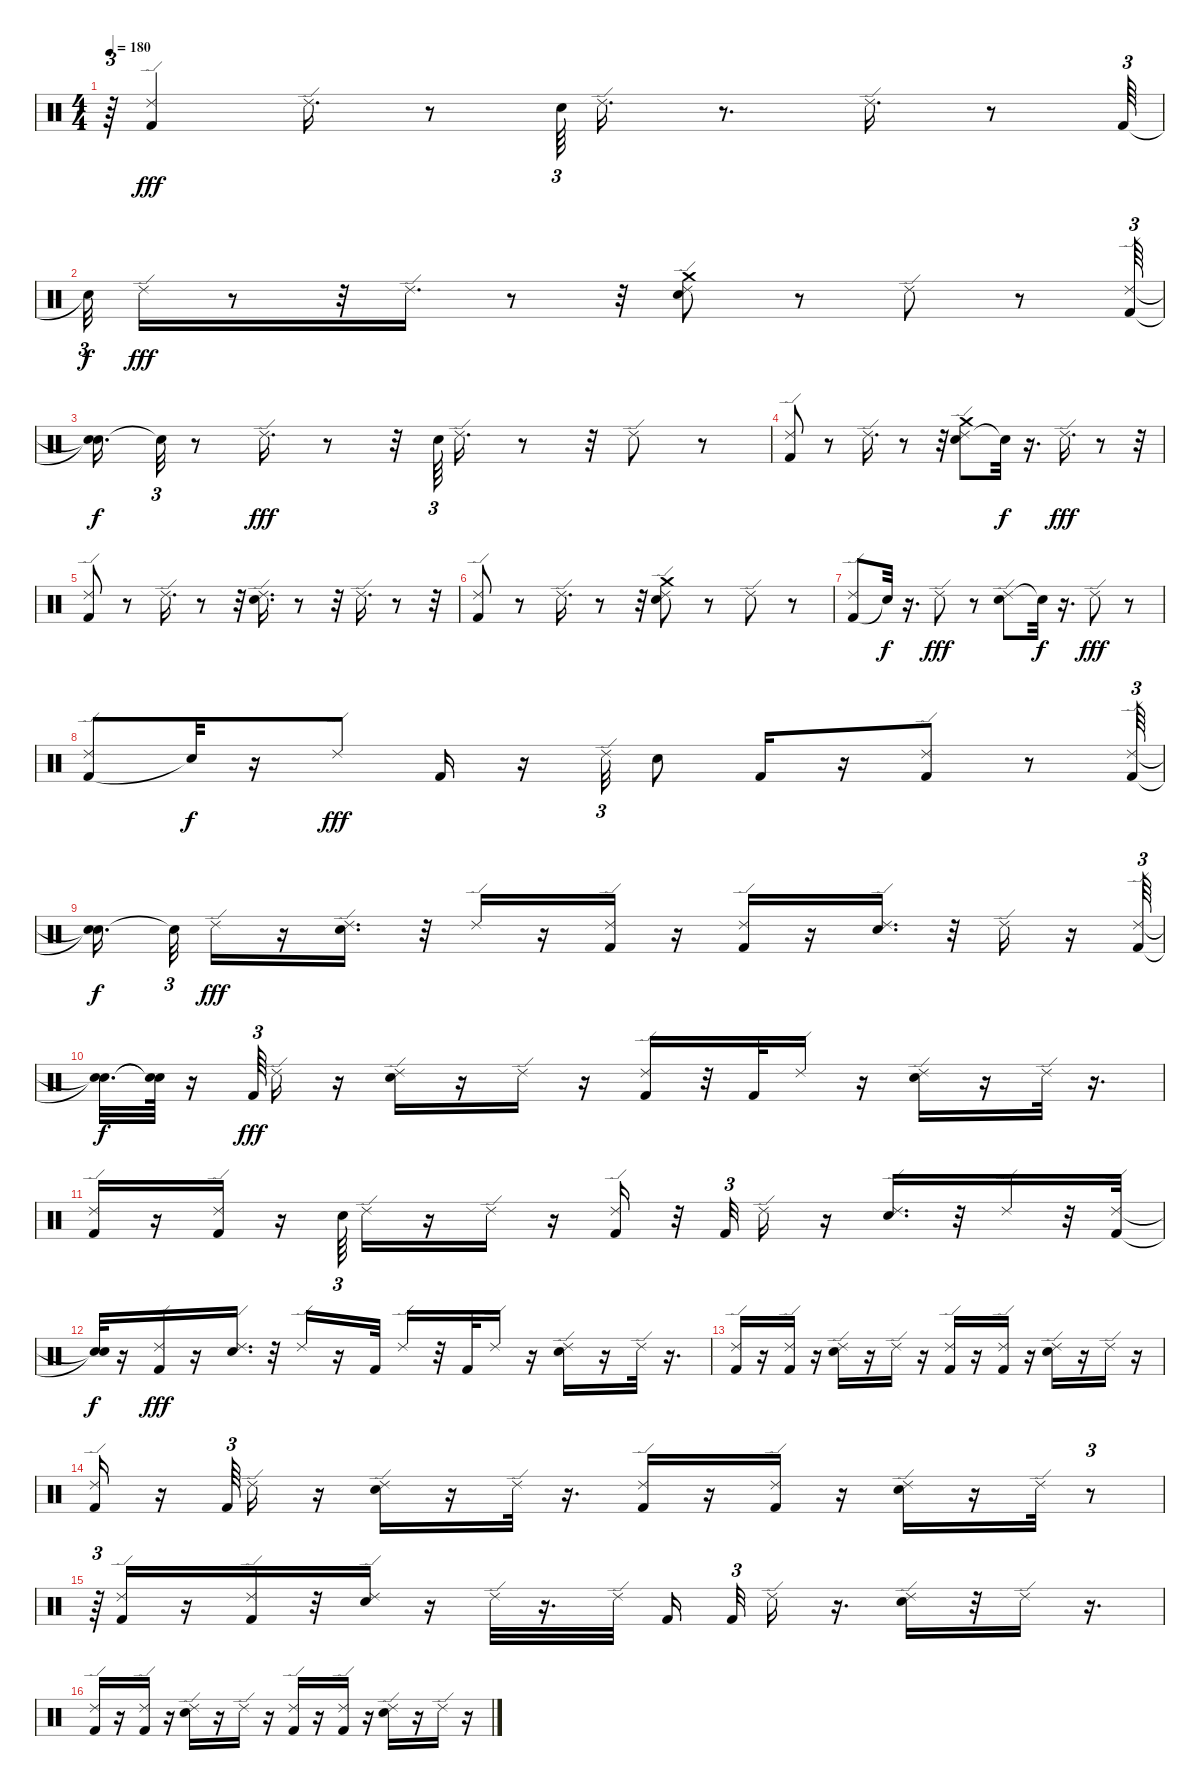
\track "" {instrument percussion}
\staff {score}
\articulation defaults
\ts (4 4)
\tempo 180
\clef neutral
\ks c
r.64{tu (3 2) dy fff} ("Kick (hit) 2" "Ride (edge) 2").4 "Ride (edge) 2".16{d} r.8 "Snare (hit) 2".64{tu (3 2)} "Ride (edge) 2".16{d} r.8{d} "Ride (edge) 2".16{d} r.8 "Kick (hit) 2".64{tu (3 2)} |
"Snare (hit)"{t}.32{tu (3 2) dy f} "Ride (edge) 2".16{dy fff} r.8 r.32 "Ride (edge) 2".16{d} r.8 r.32 ("Ride (edge) 2" "Crash medium (hit)" "Snare (hit) 2").8 r.8 "Ride (edge) 2".8 r.8 ("Kick (hit) 2" "Ride (edge) 2").64{tu (3 2)} |
("Snare (hit)"{t} "Snare (hit)"{t}).16{d dy f} "Snare (hit)"{t}.32{tu (3 2)} r.8 "Ride (edge) 2".16{d dy fff} r.8 r.32 "Snare (hit) 2".64{tu (3 2)} "Ride (edge) 2".16{d} r.8 r.32 "Ride (edge) 2".8 r.8 |
("Kick (hit) 2" "Ride (edge) 2").8 r.8 "Ride (edge) 2".16{d} r.8 r.32 ("Ride (edge) 2" "Crash medium (hit)" "Snare (hit) 2").8 "Snare (hit)"{t}.32{dy f} r.16{d} "Ride (edge) 2".16{d dy fff} r.8 r.32 |
("Kick (hit) 2" "Ride (edge) 2").8 r.8 "Ride (edge) 2".16{d} r.8 r.32 ("Ride (edge) 2" "Snare (hit) 2").16{d} r.8 r.32 "Ride (edge) 2".16{d} r.8 r.32 |
("Kick (hit) 2" "Ride (edge) 2").8 r.8 "Ride (edge) 2".16{d} r.8 r.32 ("Ride (edge) 2" "Crash medium (hit)" "Snare (hit) 2").8 r.8 "Ride (edge) 2".8 r.8 |
("Kick (hit) 2" "Ride (edge) 2").8 "Snare (hit)"{t}.32{dy f} r.16{d} "Ride (edge) 2".8{dy fff} r.8 ("Ride (edge) 2" "Snare (hit) 2").8 "Snare (hit)"{t}.32{dy f} r.16{d} "Ride (edge) 2".8{dy fff} r.8 |
("Kick (hit) 2" "Ride (edge) 2").8 "Snare (hit)"{t}.32{dy f} r.16 "Ride (edge) 2".8{dy fff} "Kick (hit) 2".16 r.16 "Ride (edge) 2".32{tu (3 2)} "Snare (hit) 2".8 "Kick (hit) 2".16 r.16 ("Kick (hit) 2" "Ride (edge) 2").8 r.8 ("Kick (hit) 2" "Ride (edge) 2").64{tu (3 2)} |
("Snare (hit)"{t} "Snare (hit)"{t}).16{d dy f beam splitsecondary} "Snare (hit)"{t}.32{tu (3 2)} "Ride (edge) 2".16{dy fff} r.16 ("Ride (edge) 2" "Snare (hit) 2").16{d} r.32 "Ride (edge) 2".16 r.16 ("Kick (hit) 2" "Ride (edge) 2").16 r.16 ("Kick (hit) 2" "Ride (edge) 2").16 r.16 ("Ride (edge) 2" "Snare (hit) 2").16{d} r.32 "Ride (edge) 2".16 r.16 ("Kick (hit) 2" "Ride (edge) 2").64{tu (3 2)} |
("Snare (hit)"{t} "Snare (hit)"{t}).32{d dy f} ("Snare (hit)"{t} "Snare (hit)"{t}).64 r.16 "Kick (hit) 2".64{tu (3 2) dy fff} "Ride (edge) 2".16 r.16 ("Ride (edge) 2" "Snare (hit) 2").16 r.16 "Ride (edge) 2".16 r.16 ("Kick (hit) 2" "Ride (edge) 2").16 r.32 "Kick (hit) 2".32 "Ride (edge) 2".16 r.16 ("Ride (edge) 2" "Snare (hit) 2").16 r.16 "Ride (edge) 2".32 r.16{d} |
("Kick (hit) 2" "Ride (edge) 2").16 r.16 ("Kick (hit) 2" "Ride (edge) 2").16 r.16 "Snare (hit) 2".64{tu (3 2)} "Ride (edge) 2".16 r.16 "Ride (edge) 2".16 r.16 ("Kick (hit) 2" "Ride (edge) 2").16 r.32 "Kick (hit) 2".32{tu (3 2)} "Ride (edge) 2".16 r.16 ("Ride (edge) 2" "Snare (hit) 2").16{d} r.32 "Ride (edge) 2".16 r.32 ("Kick (hit) 2" "Ride (edge) 2").32 |
("Snare (hit)"{t} "Snare (hit)"{t}).32{dy f} r.16 ("Kick (hit) 2" "Ride (edge) 2").16{dy fff} r.16 ("Ride (edge) 2" "Snare (hit) 2").16{d} r.32 "Ride (edge) 2".16 r.16 "Kick (hit) 2".32 "Ride (edge) 2".16 r.32 "Kick (hit) 2".32 "Ride (edge) 2".16 r.16 ("Ride (edge) 2" "Snare (hit) 2").16 r.16 "Ride (edge) 2".32 r.16{d} |
("Kick (hit) 2" "Ride (edge) 2").16 r.16 ("Kick (hit) 2" "Ride (edge) 2").16 r.16 ("Ride (edge) 2" "Snare (hit) 2").16 r.16 "Ride (edge) 2".16 r.16 ("Kick (hit) 2" "Ride (edge) 2").16 r.16 ("Kick (hit) 2" "Ride (edge) 2").16 r.16 ("Snare (hit) 2" "Ride (edge) 2").16 r.16 "Ride (edge) 2".16 r.16 |
("Kick (hit) 2" "Ride (edge) 2").16 r.16 "Kick (hit) 2".64{tu (3 2)} "Ride (edge) 2".16 r.16 ("Ride (edge) 2" "Snare (hit) 2").16 r.16 "Ride (edge) 2".32 r.16{d} ("Kick (hit) 2" "Ride (edge) 2").16 r.16 ("Kick (hit) 2" "Ride (edge) 2").16 r.16 ("Ride (edge) 2" "Snare (hit) 2").16 r.16 "Ride (edge) 2".32 r.8{tu (3 2)} |
r.64{tu (3 2)} ("Kick (hit) 2" "Ride (edge) 2").16 r.16 ("Kick (hit) 2" "Ride (edge) 2").16 r.32 ("Ride (edge) 2" "Snare (hit) 2").16 r.16 "Ride (edge) 2".32 r.16{d} "Ride (edge) 2".32 "Kick (hit) 2".16{beam splitsecondary} "Kick (hit) 2".32{tu (3 2)} "Ride (edge) 2".16 r.16{d} ("Ride (edge) 2" "Snare (hit) 2").16 r.32 "Ride (edge) 2".16 r.16{d} |
("Kick (hit) 2" "Ride (edge) 2").16 r.16 ("Kick (hit) 2" "Ride (edge) 2").16 r.16 ("Ride (edge) 2" "Snare (hit) 2").16 r.16 "Ride (edge) 2".16 r.16 ("Kick (hit) 2" "Ride (edge) 2").16 r.16 ("Kick (hit) 2" "Ride (edge) 2").16 r.16 ("Ride (edge) 2" "Snare (hit) 2").16 r.16 "Ride (edge) 2".16 r.16
